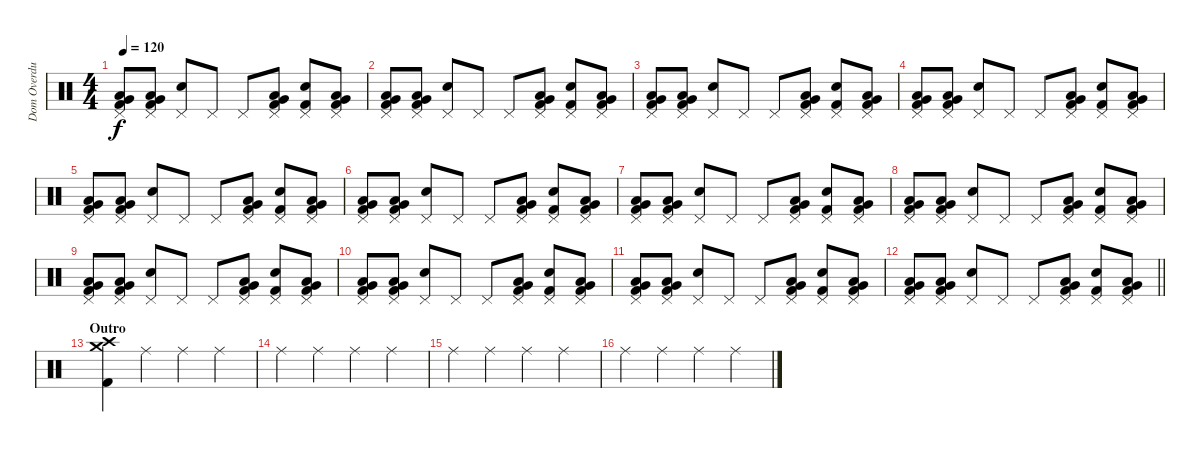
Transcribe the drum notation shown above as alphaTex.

\track ("Dom Overdub" "Dom Overdu") {instrument percussion}
\staff {score}
\articulation defaults
\ts (4 4)
\tempo 120
\clef neutral
\ks c
("Pedal Hi-Hat (hit)" "Very Low Tom (hit)" "Low Floor Tom (hit)" "Kick (hit) 2").8{dy f} ("Pedal Hi-Hat (hit)" "Very Low Tom (hit)" "Low Floor Tom (hit)" "Kick (hit) 2").8 ("Pedal Hi-Hat (hit)" "Electric Snare (hit)").8 "Pedal Hi-Hat (hit)".8 "Pedal Hi-Hat (hit)".8 ("Pedal Hi-Hat (hit)" "Very Low Tom (hit)" "Low Floor Tom (hit)" "Kick (hit) 2").8 ("Pedal Hi-Hat (hit)" "Electric Snare (hit)" "Kick (hit) 2").8 ("Pedal Hi-Hat (hit)" "Very Low Tom (hit)" "Low Floor Tom (hit)" "Kick (hit) 2").8 |
("Pedal Hi-Hat (hit)" "Very Low Tom (hit)" "Low Floor Tom (hit)" "Kick (hit) 2").8 ("Pedal Hi-Hat (hit)" "Very Low Tom (hit)" "Low Floor Tom (hit)" "Kick (hit) 2").8 ("Pedal Hi-Hat (hit)" "Electric Snare (hit)").8 "Pedal Hi-Hat (hit)".8 "Pedal Hi-Hat (hit)".8 ("Pedal Hi-Hat (hit)" "Very Low Tom (hit)" "Low Floor Tom (hit)" "Kick (hit) 2").8 ("Pedal Hi-Hat (hit)" "Electric Snare (hit)" "Kick (hit) 2").8 ("Pedal Hi-Hat (hit)" "Very Low Tom (hit)" "Low Floor Tom (hit)" "Kick (hit) 2").8 |
("Pedal Hi-Hat (hit)" "Very Low Tom (hit)" "Low Floor Tom (hit)" "Kick (hit) 2").8 ("Pedal Hi-Hat (hit)" "Very Low Tom (hit)" "Low Floor Tom (hit)" "Kick (hit) 2").8 ("Pedal Hi-Hat (hit)" "Electric Snare (hit)").8 "Pedal Hi-Hat (hit)".8 "Pedal Hi-Hat (hit)".8 ("Pedal Hi-Hat (hit)" "Very Low Tom (hit)" "Low Floor Tom (hit)" "Kick (hit) 2").8 ("Pedal Hi-Hat (hit)" "Electric Snare (hit)" "Kick (hit) 2").8 ("Pedal Hi-Hat (hit)" "Very Low Tom (hit)" "Low Floor Tom (hit)" "Kick (hit) 2").8 |
("Pedal Hi-Hat (hit)" "Very Low Tom (hit)" "Low Floor Tom (hit)" "Kick (hit) 2").8 ("Pedal Hi-Hat (hit)" "Very Low Tom (hit)" "Low Floor Tom (hit)" "Kick (hit) 2").8 ("Pedal Hi-Hat (hit)" "Electric Snare (hit)").8 "Pedal Hi-Hat (hit)".8 "Pedal Hi-Hat (hit)".8 ("Pedal Hi-Hat (hit)" "Very Low Tom (hit)" "Low Floor Tom (hit)" "Kick (hit) 2").8 ("Pedal Hi-Hat (hit)" "Electric Snare (hit)" "Kick (hit) 2").8 ("Pedal Hi-Hat (hit)" "Very Low Tom (hit)" "Low Floor Tom (hit)" "Kick (hit) 2").8 |
("Pedal Hi-Hat (hit)" "Very Low Tom (hit)" "Low Floor Tom (hit)" "Kick (hit) 2").8 ("Pedal Hi-Hat (hit)" "Very Low Tom (hit)" "Low Floor Tom (hit)" "Kick (hit) 2").8 ("Pedal Hi-Hat (hit)" "Electric Snare (hit)").8 "Pedal Hi-Hat (hit)".8 "Pedal Hi-Hat (hit)".8 ("Pedal Hi-Hat (hit)" "Very Low Tom (hit)" "Low Floor Tom (hit)" "Kick (hit) 2").8 ("Pedal Hi-Hat (hit)" "Electric Snare (hit)" "Kick (hit) 2").8 ("Pedal Hi-Hat (hit)" "Very Low Tom (hit)" "Low Floor Tom (hit)" "Kick (hit) 2").8 |
("Pedal Hi-Hat (hit)" "Very Low Tom (hit)" "Low Floor Tom (hit)" "Kick (hit) 2").8 ("Pedal Hi-Hat (hit)" "Very Low Tom (hit)" "Low Floor Tom (hit)" "Kick (hit) 2").8 ("Pedal Hi-Hat (hit)" "Electric Snare (hit)").8 "Pedal Hi-Hat (hit)".8 "Pedal Hi-Hat (hit)".8 ("Pedal Hi-Hat (hit)" "Very Low Tom (hit)" "Low Floor Tom (hit)" "Kick (hit) 2").8 ("Pedal Hi-Hat (hit)" "Electric Snare (hit)" "Kick (hit) 2").8 ("Pedal Hi-Hat (hit)" "Very Low Tom (hit)" "Low Floor Tom (hit)" "Kick (hit) 2").8 |
("Pedal Hi-Hat (hit)" "Very Low Tom (hit)" "Low Floor Tom (hit)" "Kick (hit) 2").8 ("Pedal Hi-Hat (hit)" "Very Low Tom (hit)" "Low Floor Tom (hit)" "Kick (hit) 2").8 ("Pedal Hi-Hat (hit)" "Electric Snare (hit)").8 "Pedal Hi-Hat (hit)".8 "Pedal Hi-Hat (hit)".8 ("Pedal Hi-Hat (hit)" "Very Low Tom (hit)" "Low Floor Tom (hit)" "Kick (hit) 2").8 ("Pedal Hi-Hat (hit)" "Electric Snare (hit)" "Kick (hit) 2").8 ("Pedal Hi-Hat (hit)" "Very Low Tom (hit)" "Low Floor Tom (hit)" "Kick (hit) 2").8 |
("Pedal Hi-Hat (hit)" "Very Low Tom (hit)" "Low Floor Tom (hit)" "Kick (hit) 2").8 ("Pedal Hi-Hat (hit)" "Very Low Tom (hit)" "Low Floor Tom (hit)" "Kick (hit) 2").8 ("Pedal Hi-Hat (hit)" "Electric Snare (hit)").8 "Pedal Hi-Hat (hit)".8 "Pedal Hi-Hat (hit)".8 ("Pedal Hi-Hat (hit)" "Very Low Tom (hit)" "Low Floor Tom (hit)" "Kick (hit) 2").8 ("Pedal Hi-Hat (hit)" "Electric Snare (hit)" "Kick (hit) 2").8 ("Pedal Hi-Hat (hit)" "Very Low Tom (hit)" "Low Floor Tom (hit)" "Kick (hit) 2").8 |
("Pedal Hi-Hat (hit)" "Very Low Tom (hit)" "Low Floor Tom (hit)" "Kick (hit) 2").8 ("Pedal Hi-Hat (hit)" "Very Low Tom (hit)" "Low Floor Tom (hit)" "Kick (hit) 2").8 ("Pedal Hi-Hat (hit)" "Electric Snare (hit)").8 "Pedal Hi-Hat (hit)".8 "Pedal Hi-Hat (hit)".8 ("Pedal Hi-Hat (hit)" "Very Low Tom (hit)" "Low Floor Tom (hit)" "Kick (hit) 2").8 ("Pedal Hi-Hat (hit)" "Electric Snare (hit)" "Kick (hit) 2").8 ("Pedal Hi-Hat (hit)" "Very Low Tom (hit)" "Low Floor Tom (hit)" "Kick (hit) 2").8 |
("Pedal Hi-Hat (hit)" "Very Low Tom (hit)" "Low Floor Tom (hit)" "Kick (hit) 2").8 ("Pedal Hi-Hat (hit)" "Very Low Tom (hit)" "Low Floor Tom (hit)" "Kick (hit) 2").8 ("Pedal Hi-Hat (hit)" "Electric Snare (hit)").8 "Pedal Hi-Hat (hit)".8 "Pedal Hi-Hat (hit)".8 ("Pedal Hi-Hat (hit)" "Very Low Tom (hit)" "Low Floor Tom (hit)" "Kick (hit) 2").8 ("Pedal Hi-Hat (hit)" "Electric Snare (hit)" "Kick (hit) 2").8 ("Pedal Hi-Hat (hit)" "Very Low Tom (hit)" "Low Floor Tom (hit)" "Kick (hit) 2").8 |
("Pedal Hi-Hat (hit)" "Very Low Tom (hit)" "Low Floor Tom (hit)" "Kick (hit) 2").8 ("Pedal Hi-Hat (hit)" "Very Low Tom (hit)" "Low Floor Tom (hit)" "Kick (hit) 2").8 ("Pedal Hi-Hat (hit)" "Electric Snare (hit)").8 "Pedal Hi-Hat (hit)".8 "Pedal Hi-Hat (hit)".8 ("Pedal Hi-Hat (hit)" "Very Low Tom (hit)" "Low Floor Tom (hit)" "Kick (hit) 2").8 ("Pedal Hi-Hat (hit)" "Electric Snare (hit)" "Kick (hit) 2").8 ("Pedal Hi-Hat (hit)" "Very Low Tom (hit)" "Low Floor Tom (hit)" "Kick (hit) 2").8 |
\barLineRight lightlight
("Pedal Hi-Hat (hit)" "Very Low Tom (hit)" "Low Floor Tom (hit)" "Kick (hit) 2").8 ("Pedal Hi-Hat (hit)" "Very Low Tom (hit)" "Low Floor Tom (hit)" "Kick (hit) 2").8 ("Pedal Hi-Hat (hit)" "Electric Snare (hit)").8 "Pedal Hi-Hat (hit)".8 "Pedal Hi-Hat (hit)".8 ("Pedal Hi-Hat (hit)" "Very Low Tom (hit)" "Low Floor Tom (hit)" "Kick (hit) 2").8 ("Pedal Hi-Hat (hit)" "Electric Snare (hit)" "Kick (hit) 2").8 ("Pedal Hi-Hat (hit)" "Very Low Tom (hit)" "Low Floor Tom (hit)" "Kick (hit) 2").8 |
\section ("" "Outro")
("Crash high (hit)" "Crash medium (hit)" "Kick (hit) 2").4 "Ride (middle)".4 "Ride (middle)".4 "Ride (middle)".4 |
"Ride (middle)".4 "Ride (middle)".4 "Ride (middle)".4 "Ride (middle)".4 |
"Ride (middle)".4 "Ride (middle)".4 "Ride (middle)".4 "Ride (middle)".4 |
"Ride (middle)".4 "Ride (middle)".4 "Ride (middle)".4 "Ride (middle)".4
